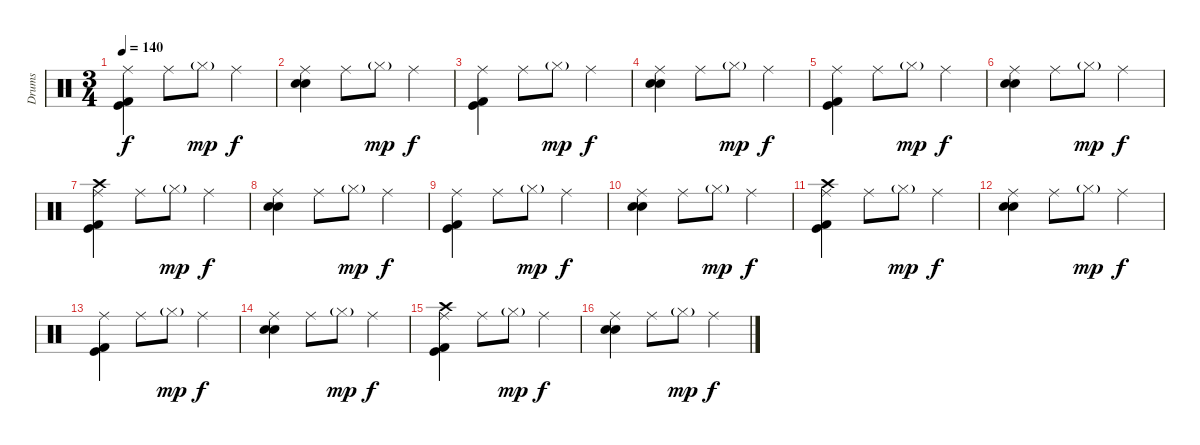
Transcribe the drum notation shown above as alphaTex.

\track ("Drums" "Drums") {instrument percussion}
\staff {score}
\articulation defaults
\ts (3 4)
\tempo 140
\clef neutral
\ks c
("Ride (middle)" "Kick (hit) 2" "Kick (hit)").4{dy f} "Ride (middle)".8 "Hi-Hat (closed)"{g}.8{dy mp} "Ride (middle)".4{dy f} |
("Ride (middle)" "Electric Snare (hit)" "Electric Snare (hit)").4 "Ride (middle)".8 "Hi-Hat (closed)"{g}.8{dy mp} "Ride (middle)".4{dy f} |
("Ride (middle)" "Kick (hit) 2" "Kick (hit)").4 "Ride (middle)".8 "Hi-Hat (closed)"{g}.8{dy mp} "Ride (middle)".4{dy f} |
("Ride (middle)" "Electric Snare (hit)" "Electric Snare (hit)").4 "Ride (middle)".8 "Hi-Hat (closed)"{g}.8{dy mp} "Ride (middle)".4{dy f} |
("Ride (middle)" "Kick (hit) 2" "Kick (hit)").4 "Ride (middle)".8 "Hi-Hat (closed)"{g}.8{dy mp} "Ride (middle)".4{dy f} |
("Ride (middle)" "Electric Snare (hit)" "Electric Snare (hit)").4 "Ride (middle)".8 "Hi-Hat (closed)"{g}.8{dy mp} "Ride (middle)".4{dy f} |
("Crash high (hit)" "Ride (middle)" "Kick (hit) 2" "Kick (hit)").4 "Ride (middle)".8 "Hi-Hat (closed)"{g}.8{dy mp} "Ride (middle)".4{dy f} |
("Ride (middle)" "Electric Snare (hit)" "Electric Snare (hit)").4 "Ride (middle)".8 "Hi-Hat (closed)"{g}.8{dy mp} "Ride (middle)".4{dy f} |
("Ride (middle)" "Kick (hit) 2" "Kick (hit)").4 "Ride (middle)".8 "Hi-Hat (closed)"{g}.8{dy mp} "Ride (middle)".4{dy f} |
("Ride (middle)" "Electric Snare (hit)" "Electric Snare (hit)").4 "Ride (middle)".8 "Hi-Hat (closed)"{g}.8{dy mp} "Ride (middle)".4{dy f} |
("Crash high (hit)" "Ride (middle)" "Kick (hit) 2" "Kick (hit)").4 "Ride (middle)".8 "Hi-Hat (closed)"{g}.8{dy mp} "Ride (middle)".4{dy f} |
("Ride (middle)" "Electric Snare (hit)" "Electric Snare (hit)").4 "Ride (middle)".8 "Hi-Hat (closed)"{g}.8{dy mp} "Ride (middle)".4{dy f} |
("Ride (middle)" "Kick (hit) 2" "Kick (hit)").4 "Ride (middle)".8 "Hi-Hat (closed)"{g}.8{dy mp} "Ride (middle)".4{dy f} |
("Ride (middle)" "Electric Snare (hit)" "Electric Snare (hit)").4 "Ride (middle)".8 "Hi-Hat (closed)"{g}.8{dy mp} "Ride (middle)".4{dy f} |
("Crash high (hit)" "Ride (middle)" "Kick (hit) 2" "Kick (hit)").4 "Ride (middle)".8 "Hi-Hat (closed)"{g}.8{dy mp} "Ride (middle)".4{dy f} |
("Ride (middle)" "Electric Snare (hit)" "Electric Snare (hit)").4 "Ride (middle)".8 "Hi-Hat (closed)"{g}.8{dy mp} "Ride (middle)".4{dy f}
